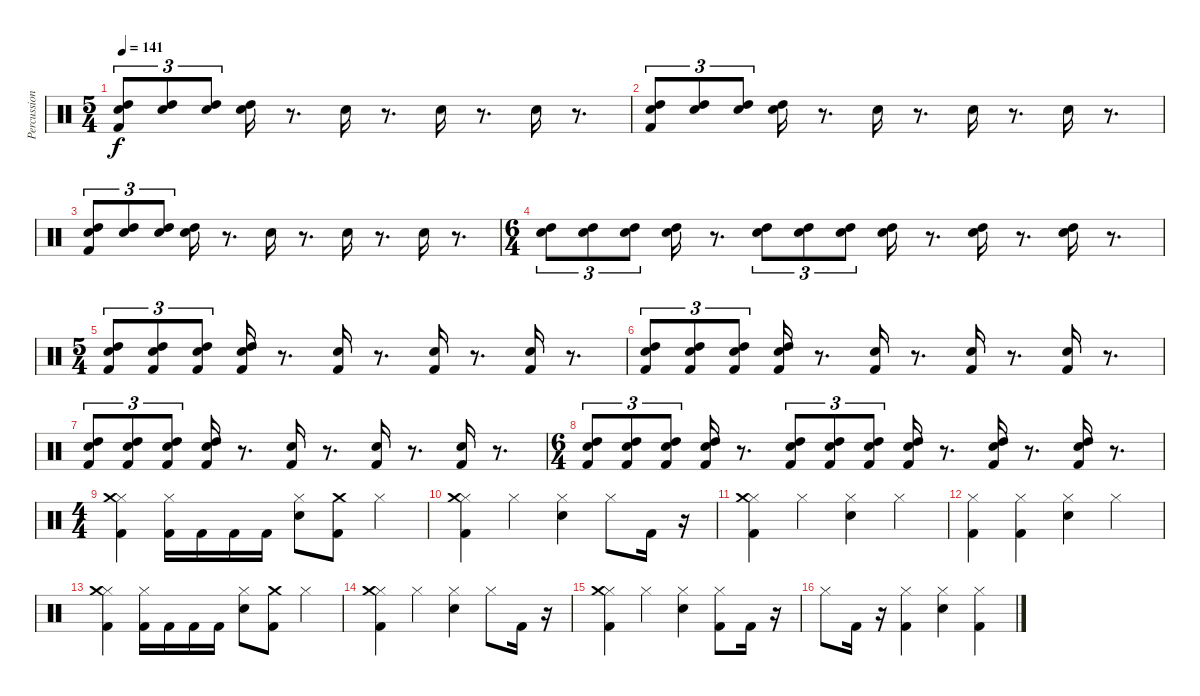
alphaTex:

\track ("Percussion" "Percussion") {instrument percussion}
\staff {score}
\articulation defaults
\ts (5 4)
\tempo 141
\clef neutral
\ks c
("Kick (hit) 2" "Snare (hit) 2" "High Tom (hit)").8{tu (3 2) dy f volume 13} ("Snare (hit) 2" "High Tom (hit)").8{tu (3 2)} ("Snare (hit) 2" "High Tom (hit)").8{tu (3 2)} ("Snare (hit) 2" "High Tom (hit)").16 r.8{d} "Snare (hit) 2".16 r.8{d} "Snare (hit) 2".16 r.8{d} "Snare (hit) 2".16 r.8{d} |
("Kick (hit) 2" "Snare (hit) 2" "High Tom (hit)").8{tu (3 2) volume 13} ("Snare (hit) 2" "High Tom (hit)").8{tu (3 2)} ("Snare (hit) 2" "High Tom (hit)").8{tu (3 2)} ("Snare (hit) 2" "High Tom (hit)").16 r.8{d} "Snare (hit) 2".16 r.8{d} "Snare (hit) 2".16 r.8{d} "Snare (hit) 2".16 r.8{d} |
("Kick (hit) 2" "Snare (hit) 2" "High Tom (hit)").8{tu (3 2) volume 13} ("Snare (hit) 2" "High Tom (hit)").8{tu (3 2)} ("Snare (hit) 2" "High Tom (hit)").8{tu (3 2)} ("Snare (hit) 2" "High Tom (hit)").16 r.8{d} "Snare (hit) 2".16 r.8{d} "Snare (hit) 2".16 r.8{d} "Snare (hit) 2".16 r.8{d} |
\ts (6 4)
("Snare (hit) 2" "High Tom (hit)").8{tu (3 2)} ("Snare (hit) 2" "High Tom (hit)").8{tu (3 2)} ("Snare (hit) 2" "High Tom (hit)").8{tu (3 2)} ("Snare (hit) 2" "High Tom (hit)").16 r.8{d} ("Snare (hit) 2" "High Tom (hit)").8{tu (3 2)} ("Snare (hit) 2" "High Tom (hit)").8{tu (3 2)} ("Snare (hit) 2" "High Tom (hit)").8{tu (3 2)} ("Snare (hit) 2" "High Tom (hit)").16 r.8{d} ("Snare (hit) 2" "High Tom (hit)").16 r.8{d} ("Snare (hit) 2" "High Tom (hit)").16 r.8{d} |
\ts (5 4)
("Kick (hit) 2" "Snare (hit) 2" "High Tom (hit)").8{tu (3 2)} ("Kick (hit) 2" "Snare (hit) 2" "High Tom (hit)").8{tu (3 2)} ("Kick (hit) 2" "Snare (hit) 2" "High Tom (hit)").8{tu (3 2)} ("Kick (hit) 2" "Snare (hit) 2" "High Tom (hit)").16 r.8{d} ("Kick (hit) 2" "Snare (hit) 2").16 r.8{d} ("Kick (hit) 2" "Snare (hit) 2").16 r.8{d} ("Kick (hit) 2" "Snare (hit) 2").16 r.8{d} |
("Kick (hit) 2" "Snare (hit) 2" "High Tom (hit)").8{tu (3 2)} ("Kick (hit) 2" "Snare (hit) 2" "High Tom (hit)").8{tu (3 2)} ("Kick (hit) 2" "Snare (hit) 2" "High Tom (hit)").8{tu (3 2)} ("Kick (hit) 2" "Snare (hit) 2" "High Tom (hit)").16 r.8{d} ("Kick (hit) 2" "Snare (hit) 2").16 r.8{d} ("Kick (hit) 2" "Snare (hit) 2").16 r.8{d} ("Kick (hit) 2" "Snare (hit) 2").16 r.8{d} |
("Kick (hit) 2" "Snare (hit) 2" "High Tom (hit)").8{tu (3 2)} ("Kick (hit) 2" "Snare (hit) 2" "High Tom (hit)").8{tu (3 2)} ("Kick (hit) 2" "Snare (hit) 2" "High Tom (hit)").8{tu (3 2)} ("Kick (hit) 2" "Snare (hit) 2" "High Tom (hit)").16 r.8{d} ("Kick (hit) 2" "Snare (hit) 2").16 r.8{d} ("Kick (hit) 2" "Snare (hit) 2").16 r.8{d} ("Kick (hit) 2" "Snare (hit) 2").16 r.8{d} |
\ts (6 4)
("Kick (hit) 2" "Snare (hit) 2" "High Tom (hit)").8{tu (3 2)} ("Kick (hit) 2" "Snare (hit) 2" "High Tom (hit)").8{tu (3 2)} ("Kick (hit) 2" "Snare (hit) 2" "High Tom (hit)").8{tu (3 2)} ("Kick (hit) 2" "Snare (hit) 2" "High Tom (hit)").16 r.8{d} ("Kick (hit) 2" "Snare (hit) 2" "High Tom (hit)").8{tu (3 2)} ("Kick (hit) 2" "Snare (hit) 2" "High Tom (hit)").8{tu (3 2)} ("Kick (hit) 2" "Snare (hit) 2" "High Tom (hit)").8{tu (3 2)} ("Kick (hit) 2" "Snare (hit) 2" "High Tom (hit)").16 r.8{d} ("Kick (hit) 2" "Snare (hit) 2" "High Tom (hit)").16 r.8{d} ("Kick (hit) 2" "Snare (hit) 2" "High Tom (hit)").16 r.8{d} |
\ts (4 4)
("Kick (hit) 2" "Hi-Hat (closed)" "Crash medium (hit)").4 ("Kick (hit) 2" "Hi-Hat (closed)").16 "Kick (hit) 2".16 "Kick (hit) 2".16 "Kick (hit) 2".16 ("Snare (hit) 2" "Hi-Hat (closed)").8 ("Kick (hit) 2" "Crash medium (hit)").8 "Hi-Hat (closed)".4 |
("Kick (hit) 2" "Hi-Hat (closed)" "Crash medium (hit)").4 "Hi-Hat (closed)".4 ("Snare (hit) 2" "Hi-Hat (closed)").4 "Hi-Hat (closed)".8 "Kick (hit) 2".16 r.16 |
("Kick (hit) 2" "Hi-Hat (closed)" "Crash medium (hit)").4 "Hi-Hat (closed)".4 ("Snare (hit) 2" "Hi-Hat (closed)").4 "Hi-Hat (closed)".4 |
("Kick (hit) 2" "Hi-Hat (closed)").4 ("Kick (hit) 2" "Hi-Hat (closed)").4 ("Snare (hit) 2" "Hi-Hat (closed)").4 "Hi-Hat (closed)".4 |
("Kick (hit) 2" "Hi-Hat (closed)" "Crash medium (hit)").4 ("Kick (hit) 2" "Hi-Hat (closed)").16 "Kick (hit) 2".16 "Kick (hit) 2".16 "Kick (hit) 2".16 ("Snare (hit) 2" "Hi-Hat (closed)").8 ("Kick (hit) 2" "Crash medium (hit)").8 "Hi-Hat (closed)".4 |
("Kick (hit) 2" "Hi-Hat (closed)" "Crash medium (hit)").4 "Hi-Hat (closed)".4 ("Snare (hit) 2" "Hi-Hat (closed)").4 "Hi-Hat (closed)".8 "Kick (hit) 2".16 r.16 |
("Kick (hit) 2" "Hi-Hat (closed)" "Crash medium (hit)").4 "Hi-Hat (closed)".4 ("Snare (hit) 2" "Hi-Hat (closed)").4 ("Kick (hit) 2" "Hi-Hat (closed)").8 "Kick (hit) 2".16 r.16 |
"Hi-Hat (closed)".8 "Kick (hit) 2".16 r.16 ("Kick (hit) 2" "Hi-Hat (closed)").4 ("Snare (hit) 2" "Hi-Hat (closed)").4 ("Kick (hit) 2" "Hi-Hat (closed)").4
